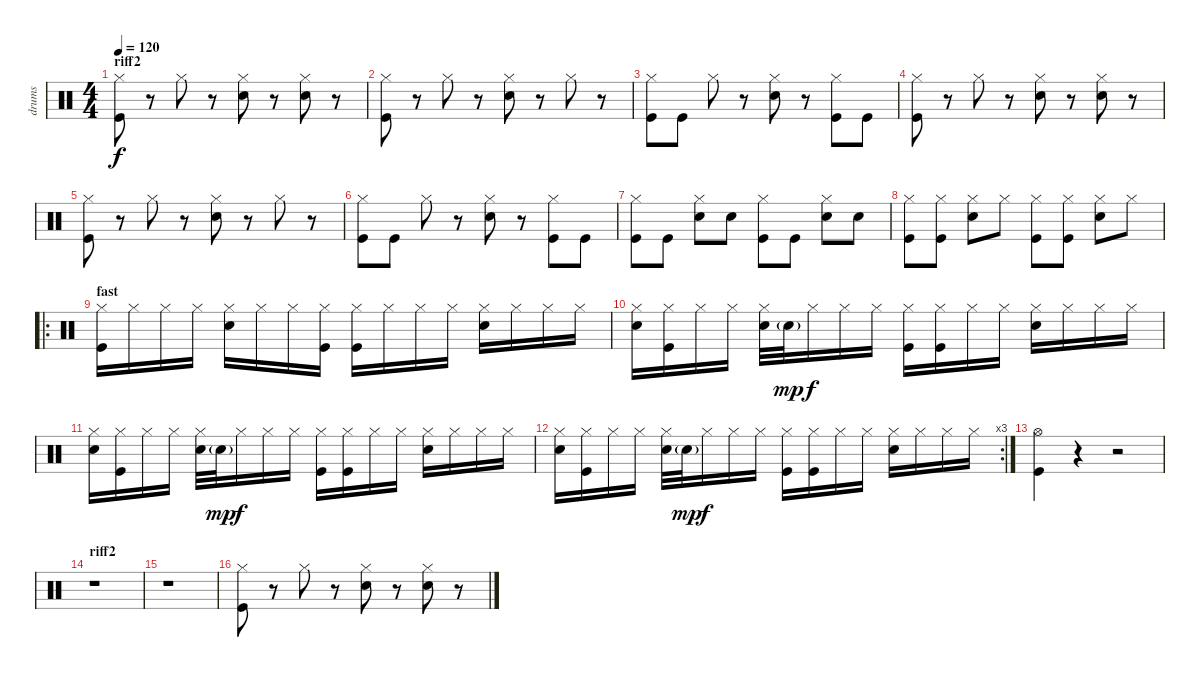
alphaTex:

\track ("drums" "drums") {instrument percussion}
\staff {score}
\articulation defaults
\ts (4 4)
\section ("" "riff2")
\tempo 120
\clef neutral
\ks c
("Hi-Hat (closed)" "Kick (hit)").8{dy f} r.8 "Hi-Hat (closed)".8 r.8 ("Hi-Hat (closed)" "Electric Snare (hit)").8 r.8 ("Hi-Hat (closed)" "Electric Snare (hit)").8 r.8 |
("Hi-Hat (closed)" "Kick (hit)").8 r.8 "Hi-Hat (closed)".8 r.8 ("Hi-Hat (closed)" "Electric Snare (hit)").8 r.8 "Hi-Hat (closed)".8 r.8 |
("Hi-Hat (closed)" "Kick (hit)").8 "Kick (hit)".8 "Hi-Hat (closed)".8 r.8 ("Hi-Hat (closed)" "Electric Snare (hit)").8 r.8 ("Hi-Hat (closed)" "Kick (hit)").8 "Kick (hit)".8 |
("Hi-Hat (closed)" "Kick (hit)").8 r.8 "Hi-Hat (closed)".8 r.8 ("Hi-Hat (closed)" "Electric Snare (hit)").8 r.8 ("Hi-Hat (closed)" "Electric Snare (hit)").8 r.8 |
("Hi-Hat (closed)" "Kick (hit)").8 r.8 "Hi-Hat (closed)".8 r.8 ("Hi-Hat (closed)" "Electric Snare (hit)").8 r.8 "Hi-Hat (closed)".8 r.8 |
("Hi-Hat (closed)" "Kick (hit)").8 "Kick (hit)".8 "Hi-Hat (closed)".8 r.8 ("Hi-Hat (closed)" "Electric Snare (hit)").8 r.8 ("Hi-Hat (closed)" "Kick (hit)").8 "Kick (hit)".8 |
("Hi-Hat (closed)" "Kick (hit)").8 "Kick (hit)".8 ("Hi-Hat (closed)" "Electric Snare (hit)").8 "Electric Snare (hit)".8 ("Hi-Hat (closed)" "Kick (hit)").8 "Kick (hit)".8 ("Hi-Hat (closed)" "Electric Snare (hit)").8 "Electric Snare (hit)".8 |
("Hi-Hat (closed)" "Kick (hit)").8 ("Hi-Hat (closed)" "Kick (hit)").8 ("Hi-Hat (closed)" "Electric Snare (hit)").8 "Hi-Hat (closed)".8 ("Hi-Hat (closed)" "Kick (hit)").8 ("Hi-Hat (closed)" "Kick (hit)").8 ("Hi-Hat (closed)" "Electric Snare (hit)").8 "Hi-Hat (closed)".8 |
\ro
\section ("" "fast")
("Hi-Hat (closed)" "Kick (hit)").16 "Hi-Hat (closed)".16 "Hi-Hat (closed)".16 "Hi-Hat (closed)".16 ("Hi-Hat (closed)" "Electric Snare (hit)").16 "Hi-Hat (closed)".16 "Hi-Hat (closed)".16 ("Hi-Hat (closed)" "Kick (hit)").16 ("Hi-Hat (closed)" "Kick (hit)").16 "Hi-Hat (closed)".16 "Hi-Hat (closed)".16 "Hi-Hat (closed)".16 ("Hi-Hat (closed)" "Electric Snare (hit)").16 "Hi-Hat (closed)".16 "Hi-Hat (closed)".16 "Hi-Hat (closed)".16 |
("Hi-Hat (closed)" "Electric Snare (hit)").16 ("Hi-Hat (closed)" "Kick (hit)").16 "Hi-Hat (closed)".16 "Hi-Hat (closed)".16 ("Hi-Hat (closed)" "Electric Snare (hit)").32 "Electric Snare (hit)"{g}.32{dy mp} "Hi-Hat (closed)".16{dy f} "Hi-Hat (closed)".16 "Hi-Hat (closed)".16 ("Hi-Hat (closed)" "Kick (hit)").16 ("Hi-Hat (closed)" "Kick (hit)").16 "Hi-Hat (closed)".16 "Hi-Hat (closed)".16 ("Hi-Hat (closed)" "Electric Snare (hit)").16 "Hi-Hat (closed)".16 "Hi-Hat (closed)".16 "Hi-Hat (closed)".16 |
("Hi-Hat (closed)" "Electric Snare (hit)").16 ("Hi-Hat (closed)" "Kick (hit)").16 "Hi-Hat (closed)".16 "Hi-Hat (closed)".16 ("Hi-Hat (closed)" "Electric Snare (hit)").32 "Electric Snare (hit)"{g}.32{dy mp} "Hi-Hat (closed)".16{dy f} "Hi-Hat (closed)".16 "Hi-Hat (closed)".16 ("Hi-Hat (closed)" "Kick (hit)").16 ("Hi-Hat (closed)" "Kick (hit)").16 "Hi-Hat (closed)".16 "Hi-Hat (closed)".16 ("Hi-Hat (closed)" "Electric Snare (hit)").16 "Hi-Hat (closed)".16 "Hi-Hat (closed)".16 "Hi-Hat (closed)".16 |
\rc 3
("Hi-Hat (closed)" "Electric Snare (hit)").16 ("Hi-Hat (closed)" "Kick (hit)").16 "Hi-Hat (closed)".16 "Hi-Hat (closed)".16 ("Hi-Hat (closed)" "Electric Snare (hit)").32 "Electric Snare (hit)"{g}.32{dy mp} "Hi-Hat (closed)".16{dy f} "Hi-Hat (closed)".16 "Hi-Hat (closed)".16 ("Hi-Hat (closed)" "Kick (hit)").16 ("Hi-Hat (closed)" "Kick (hit)").16 "Hi-Hat (closed)".16 "Hi-Hat (closed)".16 ("Hi-Hat (closed)" "Electric Snare (hit)").16 "Hi-Hat (closed)".16 "Hi-Hat (closed)".16 "Hi-Hat (closed)".16 |
("Hi-Hat (open)" "Kick (hit)").4 r.4 r.2 |
\section ("" "riff2")
r.1 |
r.1 |
("Hi-Hat (closed)" "Kick (hit)").8 r.8 "Hi-Hat (closed)".8 r.8 ("Hi-Hat (closed)" "Electric Snare (hit)").8 r.8 ("Hi-Hat (closed)" "Electric Snare (hit)").8 r.8
